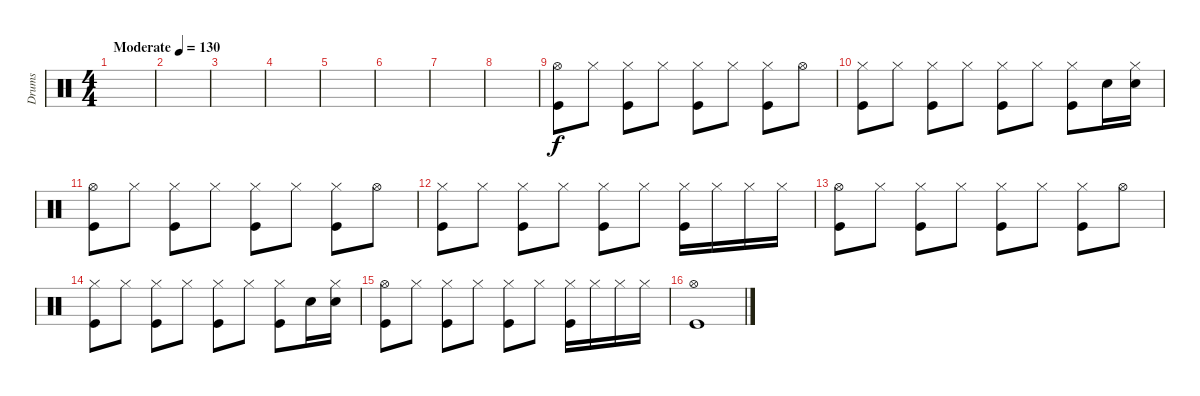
\track ("Drums" "Drums") {instrument percussion}
\staff {score}
\articulation defaults
\ts (4 4)
\tempo (130 "Moderate")
\clef neutral
\ks c
|
|
|
|
|
|
|
|
("Hi-Hat (open)" "Kick (hit)").8 "Hi-Hat (closed)".8 ("Hi-Hat (closed)" "Kick (hit)").8 "Hi-Hat (closed)".8 ("Hi-Hat (closed)" "Kick (hit)").8 "Hi-Hat (closed)".8 ("Hi-Hat (closed)" "Kick (hit)").8 "Hi-Hat (open)".8 |
("Hi-Hat (closed)" "Kick (hit)").8 "Hi-Hat (closed)".8 ("Hi-Hat (closed)" "Kick (hit)").8 "Hi-Hat (closed)".8 ("Hi-Hat (closed)" "Kick (hit)").8 "Hi-Hat (closed)".8 ("Hi-Hat (closed)" "Kick (hit)").8 "Snare (hit) 2".16 ("Hi-Hat (closed)" "Snare (hit) 2").16 |
("Hi-Hat (open)" "Kick (hit)").8 "Hi-Hat (closed)".8 ("Hi-Hat (closed)" "Kick (hit)").8 "Hi-Hat (closed)".8 ("Hi-Hat (closed)" "Kick (hit)").8 "Hi-Hat (closed)".8 ("Hi-Hat (closed)" "Kick (hit)").8 "Hi-Hat (open)".8 |
("Hi-Hat (closed)" "Kick (hit)").8 "Hi-Hat (closed)".8 ("Hi-Hat (closed)" "Kick (hit)").8 "Hi-Hat (closed)".8 ("Hi-Hat (closed)" "Kick (hit)").8 "Hi-Hat (closed)".8 ("Hi-Hat (closed)" "Kick (hit)").16 "Hi-Hat (closed)".16 "Hi-Hat (closed)".16 "Hi-Hat (closed)".16 |
("Hi-Hat (open)" "Kick (hit)").8 "Hi-Hat (closed)".8 ("Hi-Hat (closed)" "Kick (hit)").8 "Hi-Hat (closed)".8 ("Hi-Hat (closed)" "Kick (hit)").8 "Hi-Hat (closed)".8 ("Hi-Hat (closed)" "Kick (hit)").8 "Hi-Hat (open)".8 |
("Hi-Hat (closed)" "Kick (hit)").8 "Hi-Hat (closed)".8 ("Hi-Hat (closed)" "Kick (hit)").8 "Hi-Hat (closed)".8 ("Hi-Hat (closed)" "Kick (hit)").8 "Hi-Hat (closed)".8 ("Hi-Hat (closed)" "Kick (hit)").8 "Snare (hit) 2".16 ("Hi-Hat (closed)" "Snare (hit) 2").16 |
("Hi-Hat (open)" "Kick (hit)").8 "Hi-Hat (closed)".8 ("Hi-Hat (closed)" "Kick (hit)").8 "Hi-Hat (closed)".8 ("Hi-Hat (closed)" "Kick (hit)").8 "Hi-Hat (closed)".8 ("Hi-Hat (closed)" "Kick (hit)").16 "Hi-Hat (closed)".16 "Hi-Hat (closed)".16 "Hi-Hat (closed)".16 |
("Hi-Hat (open)" "Kick (hit)").1
